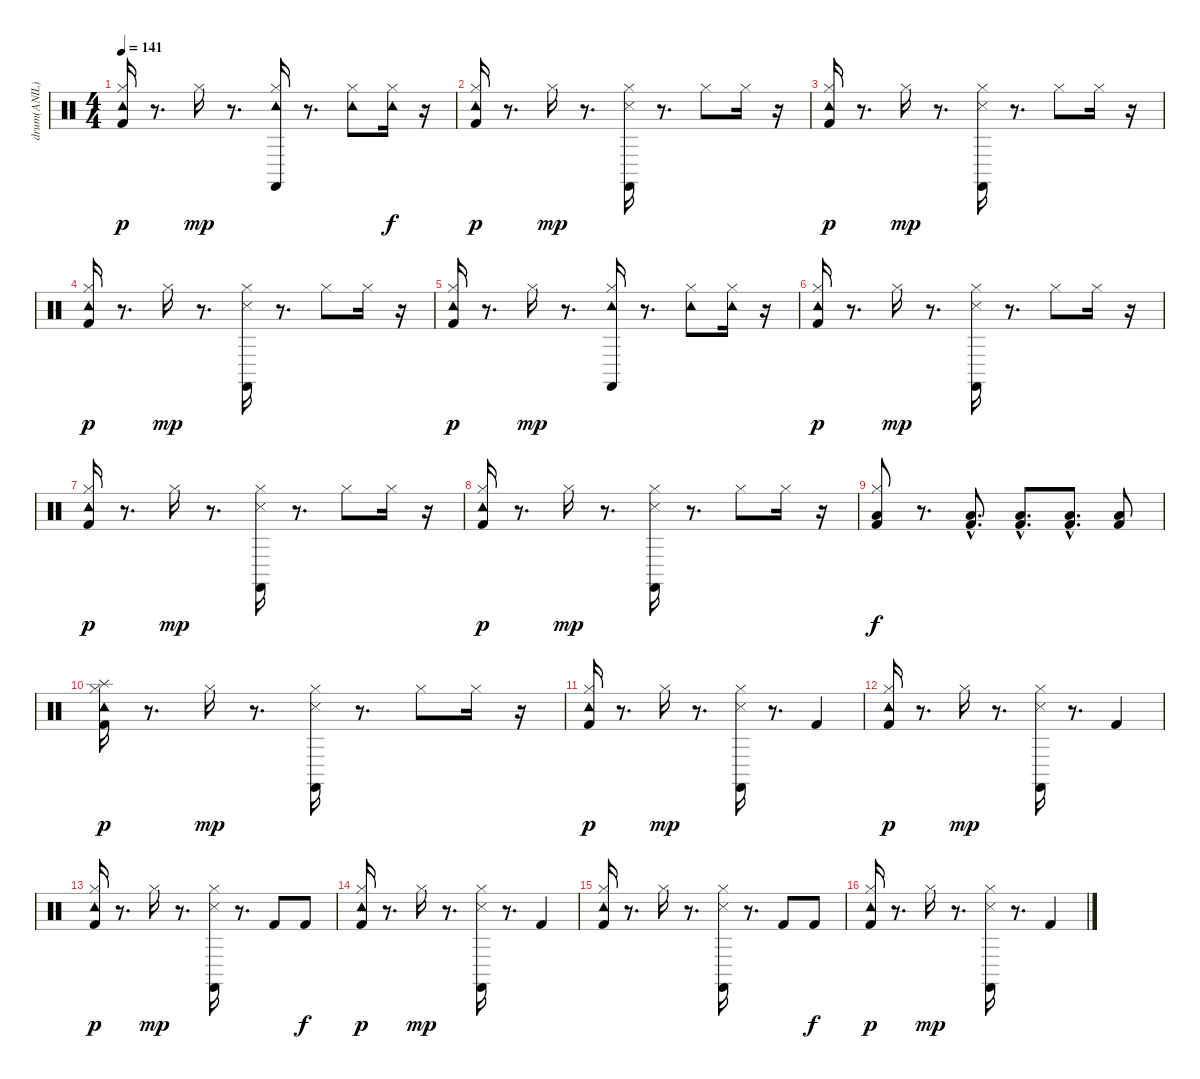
\track ("drum(ANIL)" "drum(ANIL)") {instrument percussion}
\staff {score}
\articulation defaults
\ts (4 4)
\tempo 141
\clef neutral
\ks c
("Kick (hit) 2" "Hi-Hat (closed)" "Tambourine (hit)").16{dy p} r.8{d} "Hi-Hat (closed)".16{dy mp} r.8{d} ("Castanets (hit)" "Tambourine (hit)" "Hi-Hat (closed)").16 r.8{d} ("Hi-Hat (closed)" "Tambourine (hit)").8 ("Hi-Hat (closed)" "Tambourine (hit)").16{dy f} r.16 |
("Kick (hit) 2" "Hi-Hat (closed)" "Tambourine (hit)").16{dy p} r.8{d} "Hi-Hat (closed)".16{dy mp} r.8{d} ("Castanets (hit)" "Snare (side stick) 3" "Hi-Hat (closed)").16 r.8{d} "Hi-Hat (closed)".8 "Hi-Hat (closed)".16 r.16 |
("Kick (hit) 2" "Hi-Hat (closed)" "Tambourine (hit)").16{dy p} r.8{d} "Hi-Hat (closed)".16{dy mp} r.8{d} ("Castanets (hit)" "Snare (side stick) 3" "Hi-Hat (closed)").16 r.8{d} "Hi-Hat (closed)".8 "Hi-Hat (closed)".16 r.16 |
("Kick (hit) 2" "Hi-Hat (closed)" "Tambourine (hit)").16{dy p} r.8{d} "Hi-Hat (closed)".16{dy mp} r.8{d} ("Castanets (hit)" "Snare (side stick) 3" "Hi-Hat (closed)").16 r.8{d} "Hi-Hat (closed)".8 "Hi-Hat (closed)".16 r.16 |
("Kick (hit) 2" "Hi-Hat (closed)" "Tambourine (hit)").16{dy p} r.8{d} "Hi-Hat (closed)".16{dy mp} r.8{d} ("Castanets (hit)" "Tambourine (hit)" "Hi-Hat (closed)").16 r.8{d} ("Hi-Hat (closed)" "Tambourine (hit)").8 ("Hi-Hat (closed)" "Tambourine (hit)").16 r.16 |
("Kick (hit) 2" "Hi-Hat (closed)" "Tambourine (hit)").16{dy p} r.8{d} "Hi-Hat (closed)".16{dy mp} r.8{d} ("Castanets (hit)" "Snare (side stick) 3" "Hi-Hat (closed)").16 r.8{d} "Hi-Hat (closed)".8 "Hi-Hat (closed)".16 r.16 |
("Kick (hit) 2" "Hi-Hat (closed)" "Tambourine (hit)").16{dy p} r.8{d} "Hi-Hat (closed)".16{dy mp} r.8{d} ("Castanets (hit)" "Snare (side stick) 3" "Hi-Hat (closed)").16 r.8{d} "Hi-Hat (closed)".8 "Hi-Hat (closed)".16 r.16 |
("Kick (hit) 2" "Hi-Hat (closed)" "Tambourine (hit)").16{dy p} r.8{d} "Hi-Hat (closed)".16{dy mp} r.8{d} ("Castanets (hit)" "Snare (side stick) 3" "Hi-Hat (closed)").16 r.8{d} "Hi-Hat (closed)".8 "Hi-Hat (closed)".16 r.16 |
("Kick (hit) 2" "Hi-Hat (closed)" "Low Tom (hit)").8{dy f} r.8{d} ("Low Tom (hit)"{hac} "Kick (hit) 2"{hac}).8{d} ("Low Tom (hit)"{hac} "Kick (hit) 2"{hac}).8{d} ("Low Tom (hit)"{hac} "Kick (hit) 2"{hac}).8{d} ("Low Tom (hit)" "Kick (hit) 2").8 |
("Splash (hit)" "Hi-Hat (closed)" "Tambourine (hit)" "Kick (hit) 2").16{dy p} r.8{d} "Hi-Hat (closed)".16{dy mp} r.8{d} ("Castanets (hit)" "Snare (side stick) 3" "Hi-Hat (closed)").16 r.8{d} "Hi-Hat (closed)".8 "Hi-Hat (closed)".16 r.16 |
("Kick (hit) 2" "Hi-Hat (closed)" "Tambourine (hit)").16{dy p} r.8{d} "Hi-Hat (closed)".16{dy mp} r.8{d} ("Castanets (hit)" "Snare (side stick) 3" "Hi-Hat (closed)").16 r.8{d} "Kick (hit) 2".4 |
("Kick (hit) 2" "Hi-Hat (closed)" "Tambourine (hit)").16{dy p} r.8{d} "Hi-Hat (closed)".16{dy mp} r.8{d} ("Castanets (hit)" "Snare (side stick) 3" "Hi-Hat (closed)").16 r.8{d} "Kick (hit) 2".4 |
("Kick (hit) 2" "Hi-Hat (closed)" "Tambourine (hit)").16{dy p} r.8{d} "Hi-Hat (closed)".16{dy mp} r.8{d} ("Castanets (hit)" "Snare (side stick) 3" "Hi-Hat (closed)").16 r.8{d} "Kick (hit) 2".8 "Kick (hit) 2".8{dy f} |
("Kick (hit) 2" "Hi-Hat (closed)" "Tambourine (hit)").16{dy p} r.8{d} "Hi-Hat (closed)".16{dy mp} r.8{d} ("Castanets (hit)" "Snare (side stick) 3" "Hi-Hat (closed)").16 r.8{d} "Kick (hit) 2".4 |
("Kick (hit) 2" "Hi-Hat (closed)" "Tambourine (hit)").16 r.8{d} "Hi-Hat (closed)".16 r.8{d} ("Castanets (hit)" "Snare (side stick) 3" "Hi-Hat (closed)").16 r.8{d} "Kick (hit) 2".8 "Kick (hit) 2".8{dy f} |
("Kick (hit) 2" "Hi-Hat (closed)" "Tambourine (hit)").16{dy p} r.8{d} "Hi-Hat (closed)".16{dy mp} r.8{d} ("Castanets (hit)" "Snare (side stick) 3" "Hi-Hat (closed)").16 r.8{d} "Kick (hit) 2".4
